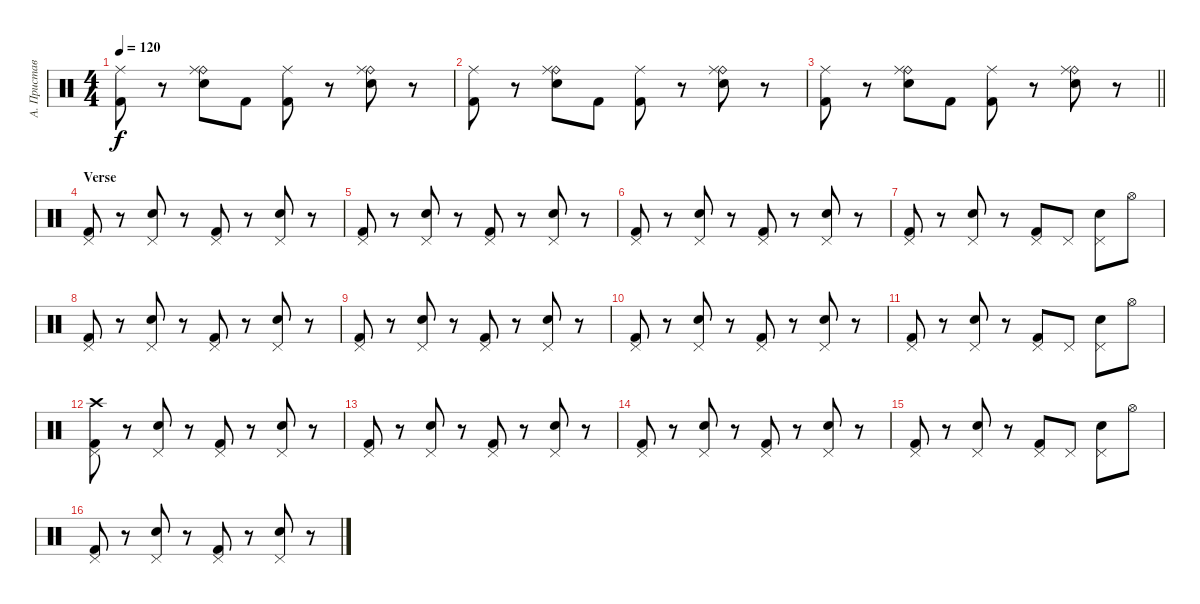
\track ("А. Приставка" "А. Пристав") {instrument percussion}
\staff {score}
\articulation defaults
\ts (4 4)
\tempo 120
\clef neutral
\ks c
("Ride (middle)" "Kick (hit) 2").8{dy f} r.8 ("Ride (bell)" "Ride (middle)" "Electric Snare (hit)").8 "Kick (hit) 2".8 ("Ride (middle)" "Kick (hit) 2").8 r.8 ("Ride (bell)" "Ride (middle)" "Electric Snare (hit)").8 r.8 |
("Ride (middle)" "Kick (hit) 2").8 r.8 ("Ride (bell)" "Ride (middle)" "Electric Snare (hit)").8 "Kick (hit) 2".8 ("Ride (middle)" "Kick (hit) 2").8 r.8 ("Ride (bell)" "Ride (middle)" "Electric Snare (hit)").8 r.8 |
\barLineRight lightlight
("Ride (middle)" "Kick (hit) 2").8 r.8 ("Ride (bell)" "Ride (middle)" "Electric Snare (hit)").8 "Kick (hit) 2".8 ("Ride (middle)" "Kick (hit) 2").8 r.8 ("Ride (bell)" "Ride (middle)" "Electric Snare (hit)").8 r.8 |
\section ("" "Verse")
("Pedal Hi-Hat (hit)" "Kick (hit) 2").8 r.8 ("Pedal Hi-Hat (hit)" "Electric Snare (hit)").8 r.8 ("Pedal Hi-Hat (hit)" "Kick (hit) 2").8 r.8 ("Pedal Hi-Hat (hit)" "Electric Snare (hit)").8 r.8 |
("Pedal Hi-Hat (hit)" "Kick (hit) 2").8 r.8 ("Pedal Hi-Hat (hit)" "Electric Snare (hit)").8 r.8 ("Pedal Hi-Hat (hit)" "Kick (hit) 2").8 r.8 ("Pedal Hi-Hat (hit)" "Electric Snare (hit)").8 r.8 |
("Pedal Hi-Hat (hit)" "Kick (hit) 2").8 r.8 ("Pedal Hi-Hat (hit)" "Electric Snare (hit)").8 r.8 ("Pedal Hi-Hat (hit)" "Kick (hit) 2").8 r.8 ("Pedal Hi-Hat (hit)" "Electric Snare (hit)").8 r.8 |
("Pedal Hi-Hat (hit)" "Kick (hit) 2").8 r.8 ("Pedal Hi-Hat (hit)" "Electric Snare (hit)").8 r.8 ("Pedal Hi-Hat (hit)" "Kick (hit) 2").8 "Pedal Hi-Hat (hit)".8 ("Pedal Hi-Hat (hit)" "Electric Snare (hit)").8 "Hi-Hat (open)".8 |
("Pedal Hi-Hat (hit)" "Kick (hit) 2").8 r.8 ("Pedal Hi-Hat (hit)" "Electric Snare (hit)").8 r.8 ("Pedal Hi-Hat (hit)" "Kick (hit) 2").8 r.8 ("Pedal Hi-Hat (hit)" "Electric Snare (hit)").8 r.8 |
("Pedal Hi-Hat (hit)" "Kick (hit) 2").8 r.8 ("Pedal Hi-Hat (hit)" "Electric Snare (hit)").8 r.8 ("Pedal Hi-Hat (hit)" "Kick (hit) 2").8 r.8 ("Pedal Hi-Hat (hit)" "Electric Snare (hit)").8 r.8 |
("Pedal Hi-Hat (hit)" "Kick (hit) 2").8 r.8 ("Pedal Hi-Hat (hit)" "Electric Snare (hit)").8 r.8 ("Pedal Hi-Hat (hit)" "Kick (hit) 2").8 r.8 ("Pedal Hi-Hat (hit)" "Electric Snare (hit)").8 r.8 |
("Pedal Hi-Hat (hit)" "Kick (hit) 2").8 r.8 ("Pedal Hi-Hat (hit)" "Electric Snare (hit)").8 r.8 ("Pedal Hi-Hat (hit)" "Kick (hit) 2").8 "Pedal Hi-Hat (hit)".8 ("Pedal Hi-Hat (hit)" "Electric Snare (hit)").8 "Hi-Hat (open)".8 |
("Crash high (hit)" "Pedal Hi-Hat (hit)" "Kick (hit) 2").8 r.8 ("Pedal Hi-Hat (hit)" "Electric Snare (hit)").8 r.8 ("Pedal Hi-Hat (hit)" "Kick (hit) 2").8 r.8 ("Pedal Hi-Hat (hit)" "Electric Snare (hit)").8 r.8 |
("Pedal Hi-Hat (hit)" "Kick (hit) 2").8 r.8 ("Pedal Hi-Hat (hit)" "Electric Snare (hit)").8 r.8 ("Pedal Hi-Hat (hit)" "Kick (hit) 2").8 r.8 ("Pedal Hi-Hat (hit)" "Electric Snare (hit)").8 r.8 |
("Pedal Hi-Hat (hit)" "Kick (hit) 2").8 r.8 ("Pedal Hi-Hat (hit)" "Electric Snare (hit)").8 r.8 ("Pedal Hi-Hat (hit)" "Kick (hit) 2").8 r.8 ("Pedal Hi-Hat (hit)" "Electric Snare (hit)").8 r.8 |
("Pedal Hi-Hat (hit)" "Kick (hit) 2").8 r.8 ("Pedal Hi-Hat (hit)" "Electric Snare (hit)").8 r.8 ("Pedal Hi-Hat (hit)" "Kick (hit) 2").8 "Pedal Hi-Hat (hit)".8 ("Pedal Hi-Hat (hit)" "Electric Snare (hit)").8 "Hi-Hat (open)".8 |
("Pedal Hi-Hat (hit)" "Kick (hit) 2").8 r.8 ("Pedal Hi-Hat (hit)" "Electric Snare (hit)").8 r.8 ("Pedal Hi-Hat (hit)" "Kick (hit) 2").8 r.8 ("Pedal Hi-Hat (hit)" "Electric Snare (hit)").8 r.8
